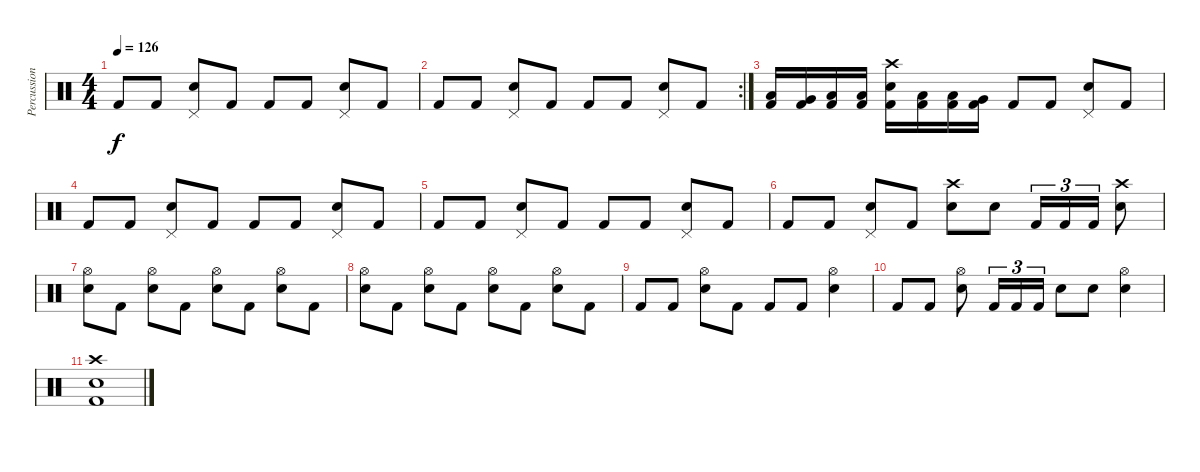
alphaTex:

\track ("Percussion" "Percussion") {instrument percussion}
\staff {score}
\articulation defaults
\ts (4 4)
\tempo 126
\clef neutral
\ks c "Kick (hit) 2".8{dy f} "Kick (hit) 2".8
("Pedal Hi-Hat (hit)" "Electric Snare (hit)").8 "Kick (hit) 2".8 "Kick (hit) 2".8 "Kick (hit) 2".8 ("Pedal Hi-Hat (hit)" "Electric Snare (hit)").8 "Kick (hit) 2".8 |
\rc 2 "Kick (hit) 2".8 "Kick (hit) 2".8
("Pedal Hi-Hat (hit)" "Electric Snare (hit)").8 "Kick (hit) 2".8 "Kick (hit) 2".8 "Kick (hit) 2".8 ("Pedal Hi-Hat (hit)" "Electric Snare (hit)").8 "Kick (hit) 2".8 |
("Low Tom (hit)" "Kick (hit) 2").16 ("Very Low Tom (hit)" "Kick (hit) 2").16 ("Low Floor Tom (hit)" "Kick (hit) 2").16 ("Low Tom (hit)" "Kick (hit) 2").16 ("Crash high (hit)" "Electric Snare (hit)" "Kick (hit) 2").16 ("Low Floor Tom (hit)" "Kick (hit) 2").16 ("Low Tom (hit)" "Kick (hit) 2").16 ("Very Low Tom (hit)" "Kick (hit) 2").16 "Kick (hit) 2".8 "Kick (hit) 2".8 ("Pedal Hi-Hat (hit)" "Electric Snare (hit)").8 "Kick (hit) 2".8 |
"Kick (hit) 2".8 "Kick (hit) 2".8 ("Pedal Hi-Hat (hit)" "Electric Snare (hit)").8 "Kick (hit) 2".8 "Kick (hit) 2".8 "Kick (hit) 2".8 ("Pedal Hi-Hat (hit)" "Electric Snare (hit)").8 "Kick (hit) 2".8 |
"Kick (hit) 2".8 "Kick (hit) 2".8 ("Pedal Hi-Hat (hit)" "Electric Snare (hit)").8 "Kick (hit) 2".8 "Kick (hit) 2".8 "Kick (hit) 2".8 ("Pedal Hi-Hat (hit)" "Electric Snare (hit)").8 "Kick (hit) 2".8 |
"Kick (hit) 2".8 "Kick (hit) 2".8 ("Pedal Hi-Hat (hit)" "Electric Snare (hit)").8 "Kick (hit) 2".8 ("Crash high (hit)" "Electric Snare (hit)").8 "Electric Snare (hit)".8 "Kick (hit) 2".16{tu (3 2)} "Kick (hit) 2".16{tu (3 2)} "Kick (hit) 2".16{tu (3 2)} ("Crash high (hit)" "Electric Snare (hit)").8 |
("Hi-Hat (open)" "Electric Snare (hit)").8 "Kick (hit) 2".8 ("Hi-Hat (open)" "Electric Snare (hit)").8 "Kick (hit) 2".8 ("Hi-Hat (open)" "Electric Snare (hit)").8 "Kick (hit) 2".8 ("Hi-Hat (open)" "Electric Snare (hit)").8 "Kick (hit) 2".8 |
("Hi-Hat (open)" "Electric Snare (hit)").8 "Kick (hit) 2".8 ("Hi-Hat (open)" "Electric Snare (hit)").8 "Kick (hit) 2".8 ("Hi-Hat (open)" "Electric Snare (hit)").8 "Kick (hit) 2".8 ("Hi-Hat (open)" "Electric Snare (hit)").8 "Kick (hit) 2".8 |
"Kick (hit) 2".8 "Kick (hit) 2".8 ("Hi-Hat (open)" "Electric Snare (hit)").8 "Kick (hit) 2".8 "Kick (hit) 2".8 "Kick (hit) 2".8 ("Hi-Hat (open)" "Electric Snare (hit)").4 |
"Kick (hit) 2".8 "Kick (hit) 2".8 ("Hi-Hat (open)" "Electric Snare (hit)").8 "Kick (hit) 2".16{tu (3 2)} "Kick (hit) 2".16{tu (3 2)} "Kick (hit) 2".16{tu (3 2)} "Electric Snare (hit)".8 "Electric Snare (hit)".8 ("Hi-Hat (open)" "Electric Snare (hit)").4 |
("Crash high (hit)" "Electric Snare (hit)" "Kick (hit) 2").1
